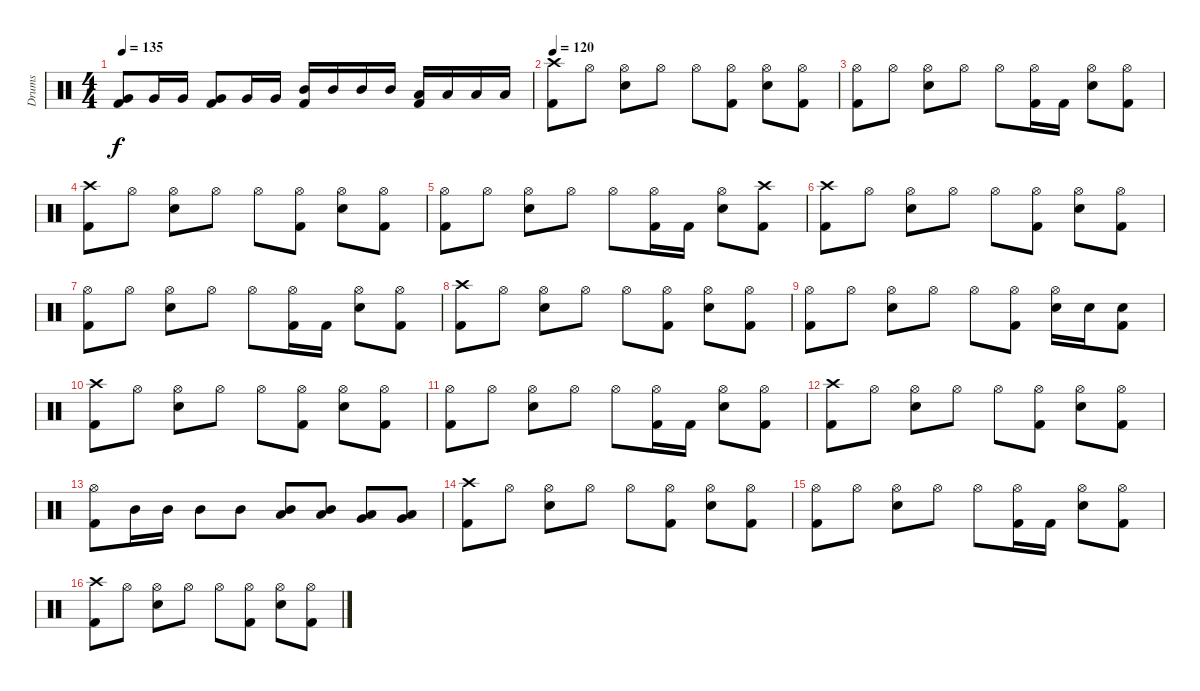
\track ("Drums" "Drums") {instrument percussion}
\staff {score}
\articulation defaults
\ts (4 4)
\tempo 135
\clef neutral
\ks c
("Very Low Tom (hit)" "Kick (hit) 2").8{dy f} "Very Low Tom (hit)".16 "Very Low Tom (hit)".16 ("Very Low Tom (hit)" "Kick (hit) 2").8 "Very Low Tom (hit)".16 "Very Low Tom (hit)".16 ("Mid Tom (hit)" "Kick (hit) 2").16 "Mid Tom (hit)".16 "Mid Tom (hit)".16 "Mid Tom (hit)".16 ("Low Tom (hit)" "Kick (hit) 2").16 "Low Tom (hit)".16 "Low Tom (hit)".16 "Low Tom (hit)".16 |
\tempo 120
("Crash high (hit)" "Kick (hit) 2").8 "Hi-Hat (open)".8 ("Hi-Hat (open)" "Snare (hit) 2").8 "Hi-Hat (open)".8 "Hi-Hat (open)".8 ("Hi-Hat (open)" "Kick (hit) 2").8 ("Hi-Hat (open)" "Snare (hit) 2").8 ("Hi-Hat (open)" "Kick (hit) 2").8 |
("Hi-Hat (open)" "Kick (hit) 2").8 "Hi-Hat (open)".8 ("Hi-Hat (open)" "Snare (hit) 2").8 "Hi-Hat (open)".8 "Hi-Hat (open)".8 ("Hi-Hat (open)" "Kick (hit) 2").16 "Kick (hit) 2".16 ("Hi-Hat (open)" "Snare (hit) 2").8 ("Hi-Hat (open)" "Kick (hit) 2").8 |
("Crash high (hit)" "Kick (hit) 2").8 "Hi-Hat (open)".8 ("Hi-Hat (open)" "Snare (hit) 2").8 "Hi-Hat (open)".8 "Hi-Hat (open)".8 ("Hi-Hat (open)" "Kick (hit) 2").8 ("Hi-Hat (open)" "Snare (hit) 2").8 ("Hi-Hat (open)" "Kick (hit) 2").8 |
("Hi-Hat (open)" "Kick (hit) 2").8 "Hi-Hat (open)".8 ("Hi-Hat (open)" "Snare (hit) 2").8 "Hi-Hat (open)".8 "Hi-Hat (open)".8 ("Hi-Hat (open)" "Kick (hit) 2").16 "Kick (hit) 2".16 ("Hi-Hat (open)" "Snare (hit) 2").8 ("Crash high (hit)" "Kick (hit) 2").8 |
("Crash high (hit)" "Kick (hit) 2").8 "Hi-Hat (open)".8 ("Hi-Hat (open)" "Snare (hit) 2").8 "Hi-Hat (open)".8 "Hi-Hat (open)".8 ("Hi-Hat (open)" "Kick (hit) 2").8 ("Hi-Hat (open)" "Snare (hit) 2").8 ("Hi-Hat (open)" "Kick (hit) 2").8 |
("Hi-Hat (open)" "Kick (hit) 2").8 "Hi-Hat (open)".8 ("Hi-Hat (open)" "Snare (hit) 2").8 "Hi-Hat (open)".8 "Hi-Hat (open)".8 ("Hi-Hat (open)" "Kick (hit) 2").16 "Kick (hit) 2".16 ("Hi-Hat (open)" "Snare (hit) 2").8 ("Hi-Hat (open)" "Kick (hit) 2").8 |
("Crash high (hit)" "Kick (hit) 2").8 "Hi-Hat (open)".8 ("Hi-Hat (open)" "Snare (hit) 2").8 "Hi-Hat (open)".8 "Hi-Hat (open)".8 ("Hi-Hat (open)" "Kick (hit) 2").8 ("Hi-Hat (open)" "Snare (hit) 2").8 ("Hi-Hat (open)" "Kick (hit) 2").8 |
("Hi-Hat (open)" "Kick (hit) 2").8 "Hi-Hat (open)".8 ("Hi-Hat (open)" "Snare (hit) 2").8 "Hi-Hat (open)".8 "Hi-Hat (open)".8 ("Hi-Hat (open)" "Kick (hit) 2").8 ("Hi-Hat (open)" "Snare (hit) 2").16 "Snare (hit) 2".16 ("Snare (hit) 2" "Kick (hit) 2").8 |
("Crash high (hit)" "Kick (hit) 2").8 "Hi-Hat (open)".8 ("Hi-Hat (open)" "Snare (hit) 2").8 "Hi-Hat (open)".8 "Hi-Hat (open)".8 ("Hi-Hat (open)" "Kick (hit) 2").8 ("Hi-Hat (open)" "Snare (hit) 2").8 ("Hi-Hat (open)" "Kick (hit) 2").8 |
("Hi-Hat (open)" "Kick (hit) 2").8 "Hi-Hat (open)".8 ("Hi-Hat (open)" "Snare (hit) 2").8 "Hi-Hat (open)".8 "Hi-Hat (open)".8 ("Hi-Hat (open)" "Kick (hit) 2").16 "Kick (hit) 2".16 ("Hi-Hat (open)" "Snare (hit) 2").8 ("Hi-Hat (open)" "Kick (hit) 2").8 |
("Crash high (hit)" "Kick (hit) 2").8 "Hi-Hat (open)".8 ("Hi-Hat (open)" "Snare (hit) 2").8 "Hi-Hat (open)".8 "Hi-Hat (open)".8 ("Hi-Hat (open)" "Kick (hit) 2").8 ("Hi-Hat (open)" "Snare (hit) 2").8 ("Hi-Hat (open)" "Kick (hit) 2").8 |
("Hi-Hat (open)" "Kick (hit) 2").8 "Mid Tom (hit)".16 "Mid Tom (hit)".16 "Mid Tom (hit)".8 "Mid Tom (hit)".8 ("Mid Tom (hit)" "Low Tom (hit)").8 ("Mid Tom (hit)" "Low Tom (hit)").8 ("Low Tom (hit)" "Very Low Tom (hit)").8 ("Low Tom (hit)" "Very Low Tom (hit)").8 |
("Crash high (hit)" "Kick (hit) 2").8 "Hi-Hat (open)".8 ("Hi-Hat (open)" "Snare (hit) 2").8 "Hi-Hat (open)".8 "Hi-Hat (open)".8 ("Hi-Hat (open)" "Kick (hit) 2").8 ("Hi-Hat (open)" "Snare (hit) 2").8 ("Hi-Hat (open)" "Kick (hit) 2").8 |
("Hi-Hat (open)" "Kick (hit) 2").8 "Hi-Hat (open)".8 ("Hi-Hat (open)" "Snare (hit) 2").8 "Hi-Hat (open)".8 "Hi-Hat (open)".8 ("Hi-Hat (open)" "Kick (hit) 2").16 "Kick (hit) 2".16 ("Hi-Hat (open)" "Snare (hit) 2").8 ("Hi-Hat (open)" "Kick (hit) 2").8 |
("Crash high (hit)" "Kick (hit) 2").8 "Hi-Hat (open)".8 ("Hi-Hat (open)" "Snare (hit) 2").8 "Hi-Hat (open)".8 "Hi-Hat (open)".8 ("Hi-Hat (open)" "Kick (hit) 2").8 ("Hi-Hat (open)" "Snare (hit) 2").8 ("Hi-Hat (open)" "Kick (hit) 2").8
